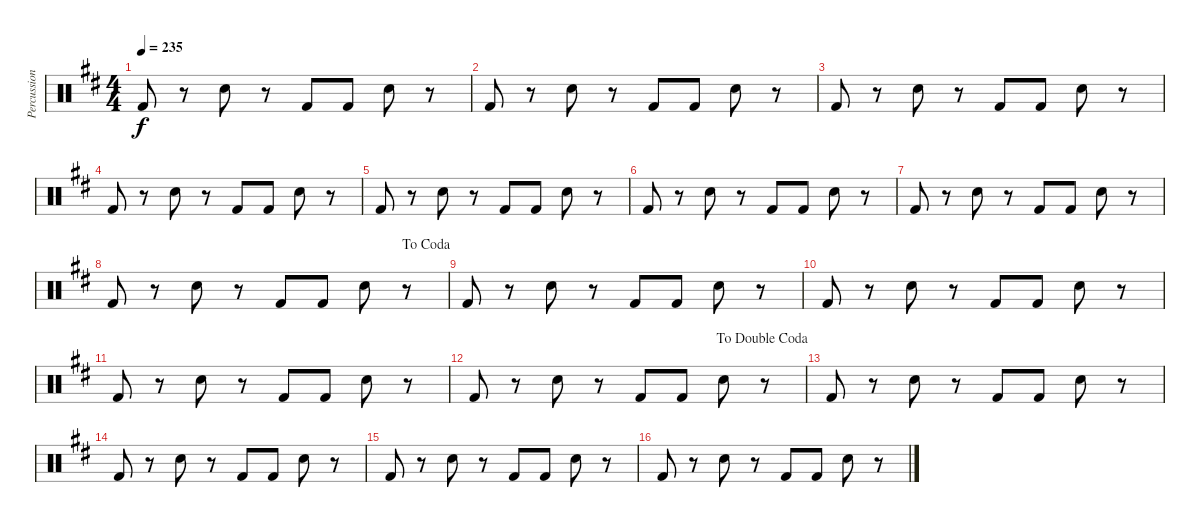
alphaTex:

\track ("Percussion" "Percussion") {instrument percussion}
\staff {score}
\articulation defaults
\ts (4 4)
\tempo 235
\clef neutral
\ks d "Kick (hit) 2".8{dy f}
r.8 "Snare (hit) 2".8 r.8 "Kick (hit) 2".8 "Kick (hit) 2".8 "Snare (hit) 2".8 r.8 |
"Kick (hit) 2".8 r.8 "Snare (hit) 2".8 r.8 "Kick (hit) 2".8 "Kick (hit) 2".8 "Snare (hit) 2".8 r.8 |
"Kick (hit) 2".8 r.8 "Snare (hit) 2".8 r.8 "Kick (hit) 2".8 "Kick (hit) 2".8 "Snare (hit) 2".8 r.8 |
"Kick (hit) 2".8 r.8 "Snare (hit) 2".8 r.8 "Kick (hit) 2".8 "Kick (hit) 2".8 "Snare (hit) 2".8 r.8 |
"Kick (hit) 2".8 r.8 "Snare (hit) 2".8 r.8 "Kick (hit) 2".8 "Kick (hit) 2".8 "Snare (hit) 2".8 r.8 |
"Kick (hit) 2".8 r.8 "Snare (hit) 2".8 r.8 "Kick (hit) 2".8 "Kick (hit) 2".8 "Snare (hit) 2".8 r.8 |
"Kick (hit) 2".8 r.8 "Snare (hit) 2".8 r.8 "Kick (hit) 2".8 "Kick (hit) 2".8 "Snare (hit) 2".8 r.8 |
\jump dacoda "Kick (hit) 2".8
r.8 "Snare (hit) 2".8 r.8 "Kick (hit) 2".8 "Kick (hit) 2".8 "Snare (hit) 2".8 r.8 |
"Kick (hit) 2".8 r.8 "Snare (hit) 2".8 r.8 "Kick (hit) 2".8 "Kick (hit) 2".8 "Snare (hit) 2".8 r.8 |
"Kick (hit) 2".8 r.8 "Snare (hit) 2".8 r.8 "Kick (hit) 2".8 "Kick (hit) 2".8 "Snare (hit) 2".8 r.8 |
"Kick (hit) 2".8 r.8 "Snare (hit) 2".8 r.8 "Kick (hit) 2".8 "Kick (hit) 2".8 "Snare (hit) 2".8 r.8 |
\jump dadoublecoda "Kick (hit) 2".8
r.8 "Snare (hit) 2".8 r.8 "Kick (hit) 2".8 "Kick (hit) 2".8 "Snare (hit) 2".8 r.8 |
"Kick (hit) 2".8 r.8 "Snare (hit) 2".8 r.8 "Kick (hit) 2".8 "Kick (hit) 2".8 "Snare (hit) 2".8 r.8 |
"Kick (hit) 2".8 r.8 "Snare (hit) 2".8 r.8 "Kick (hit) 2".8 "Kick (hit) 2".8 "Snare (hit) 2".8 r.8 |
"Kick (hit) 2".8 r.8 "Snare (hit) 2".8 r.8 "Kick (hit) 2".8 "Kick (hit) 2".8 "Snare (hit) 2".8 r.8 |
"Kick (hit) 2".8 r.8 "Snare (hit) 2".8 r.8 "Kick (hit) 2".8 "Kick (hit) 2".8 "Snare (hit) 2".8 r.8
